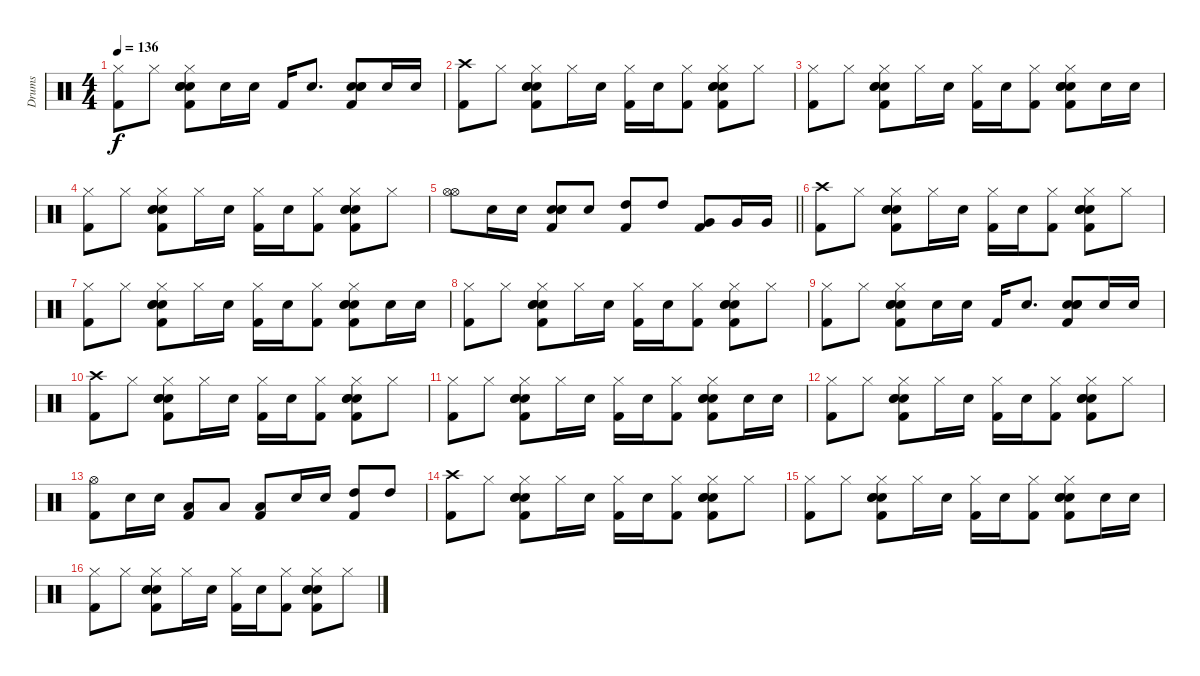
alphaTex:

\track ("Drums" "Drums") {instrument percussion}
\staff {score}
\articulation defaults
\ts (4 4)
\tempo 136
\clef neutral
\ks c
("Hi-Hat (closed)" "Kick (hit) 2").8{dy f} "Hi-Hat (closed)".8 ("Hi-Hat (closed)" "Electric Snare (hit)" "Electric Snare (hit)" "Electric Snare (hit)" "Kick (hit) 2").8 "Electric Snare (hit)".16 "Electric Snare (hit)".16 "Kick (hit) 2".16 "Electric Snare (hit)".8{d} ("Electric Snare (hit)" "Electric Snare (hit)" "Electric Snare (hit)" "Kick (hit) 2").8 "Electric Snare (hit)".16 "Electric Snare (hit)".16 |
("Crash high (hit)" "Kick (hit) 2").8 "Hi-Hat (closed)".8 ("Hi-Hat (closed)" "Electric Snare (hit)" "Electric Snare (hit)" "Electric Snare (hit)" "Kick (hit) 2").8 "Hi-Hat (closed)".16 "Electric Snare (hit)".16 ("Hi-Hat (closed)" "Kick (hit) 2").16 "Electric Snare (hit)".16 ("Hi-Hat (closed)" "Kick (hit) 2").8 ("Hi-Hat (closed)" "Electric Snare (hit)" "Electric Snare (hit)" "Electric Snare (hit)" "Kick (hit) 2").8 "Hi-Hat (closed)".8 |
("Hi-Hat (closed)" "Kick (hit) 2").8 "Hi-Hat (closed)".8 ("Hi-Hat (closed)" "Electric Snare (hit)" "Electric Snare (hit)" "Electric Snare (hit)" "Kick (hit) 2").8 "Hi-Hat (closed)".16 "Electric Snare (hit)".16 ("Hi-Hat (closed)" "Kick (hit) 2").16 "Electric Snare (hit)".16 ("Hi-Hat (closed)" "Kick (hit) 2").8 ("Hi-Hat (closed)" "Electric Snare (hit)" "Electric Snare (hit)" "Electric Snare (hit)" "Kick (hit) 2").8 "Electric Snare (hit)".16 "Electric Snare (hit)".16 |
("Hi-Hat (closed)" "Kick (hit) 2").8 "Hi-Hat (closed)".8 ("Hi-Hat (closed)" "Electric Snare (hit)" "Electric Snare (hit)" "Electric Snare (hit)" "Kick (hit) 2").8 "Hi-Hat (closed)".16 "Electric Snare (hit)".16 ("Hi-Hat (closed)" "Kick (hit) 2").16 "Electric Snare (hit)".16 ("Hi-Hat (closed)" "Kick (hit) 2").8 ("Hi-Hat (closed)" "Electric Snare (hit)" "Electric Snare (hit)" "Electric Snare (hit)" "Kick (hit) 2").8 "Hi-Hat (closed)".8 |
\barLineRight lightlight
("Hi-Hat (open)" "Hi-Hat (open)").8 "Electric Snare (hit)".16 "Electric Snare (hit)".16 ("Electric Snare (hit)" "Electric Snare (hit)" "Electric Snare (hit)" "Kick (hit) 2").8 "Electric Snare (hit)".8 ("High Tom (hit)" "Kick (hit) 2").8 "High Tom (hit)".8 ("Very Low Tom (hit)" "Kick (hit) 2").8 "Very Low Tom (hit)".16 "Very Low Tom (hit)".16 |
("Crash high (hit)" "Kick (hit) 2").8 "Hi-Hat (closed)".8 ("Hi-Hat (closed)" "Electric Snare (hit)" "Electric Snare (hit)" "Electric Snare (hit)" "Kick (hit) 2").8 "Hi-Hat (closed)".16 "Electric Snare (hit)".16 ("Hi-Hat (closed)" "Kick (hit) 2").16 "Electric Snare (hit)".16 ("Hi-Hat (closed)" "Kick (hit) 2").8 ("Hi-Hat (closed)" "Electric Snare (hit)" "Electric Snare (hit)" "Electric Snare (hit)" "Kick (hit) 2").8 "Hi-Hat (closed)".8 |
("Hi-Hat (closed)" "Kick (hit) 2").8 "Hi-Hat (closed)".8 ("Hi-Hat (closed)" "Electric Snare (hit)" "Electric Snare (hit)" "Electric Snare (hit)" "Kick (hit) 2").8 "Hi-Hat (closed)".16 "Electric Snare (hit)".16 ("Hi-Hat (closed)" "Kick (hit) 2").16 "Electric Snare (hit)".16 ("Hi-Hat (closed)" "Kick (hit) 2").8 ("Hi-Hat (closed)" "Electric Snare (hit)" "Electric Snare (hit)" "Electric Snare (hit)" "Kick (hit) 2").8 "Electric Snare (hit)".16 "Electric Snare (hit)".16 |
("Hi-Hat (closed)" "Kick (hit) 2").8 "Hi-Hat (closed)".8 ("Hi-Hat (closed)" "Electric Snare (hit)" "Electric Snare (hit)" "Electric Snare (hit)" "Kick (hit) 2").8 "Hi-Hat (closed)".16 "Electric Snare (hit)".16 ("Hi-Hat (closed)" "Kick (hit) 2").16 "Electric Snare (hit)".16 ("Hi-Hat (closed)" "Kick (hit) 2").8 ("Hi-Hat (closed)" "Electric Snare (hit)" "Electric Snare (hit)" "Electric Snare (hit)" "Kick (hit) 2").8 "Hi-Hat (closed)".8 |
("Hi-Hat (closed)" "Kick (hit) 2").8 "Hi-Hat (closed)".8 ("Hi-Hat (closed)" "Electric Snare (hit)" "Electric Snare (hit)" "Electric Snare (hit)" "Kick (hit) 2").8 "Electric Snare (hit)".16 "Electric Snare (hit)".16 "Kick (hit) 2".16 "Electric Snare (hit)".8{d} ("Electric Snare (hit)" "Electric Snare (hit)" "Electric Snare (hit)" "Kick (hit) 2").8 "Electric Snare (hit)".16 "Electric Snare (hit)".16 |
("Crash high (hit)" "Kick (hit) 2").8 "Hi-Hat (closed)".8 ("Hi-Hat (closed)" "Electric Snare (hit)" "Electric Snare (hit)" "Electric Snare (hit)" "Kick (hit) 2").8 "Hi-Hat (closed)".16 "Electric Snare (hit)".16 ("Hi-Hat (closed)" "Kick (hit) 2").16 "Electric Snare (hit)".16 ("Hi-Hat (closed)" "Kick (hit) 2").8 ("Hi-Hat (closed)" "Electric Snare (hit)" "Electric Snare (hit)" "Electric Snare (hit)" "Kick (hit) 2").8 "Hi-Hat (closed)".8 |
("Hi-Hat (closed)" "Kick (hit) 2").8 "Hi-Hat (closed)".8 ("Hi-Hat (closed)" "Electric Snare (hit)" "Electric Snare (hit)" "Electric Snare (hit)" "Kick (hit) 2").8 "Hi-Hat (closed)".16 "Electric Snare (hit)".16 ("Hi-Hat (closed)" "Kick (hit) 2").16 "Electric Snare (hit)".16 ("Hi-Hat (closed)" "Kick (hit) 2").8 ("Hi-Hat (closed)" "Electric Snare (hit)" "Electric Snare (hit)" "Electric Snare (hit)" "Kick (hit) 2").8 "Electric Snare (hit)".16 "Electric Snare (hit)".16 |
("Hi-Hat (closed)" "Kick (hit) 2").8 "Hi-Hat (closed)".8 ("Hi-Hat (closed)" "Electric Snare (hit)" "Electric Snare (hit)" "Electric Snare (hit)" "Kick (hit) 2").8 "Hi-Hat (closed)".16 "Electric Snare (hit)".16 ("Hi-Hat (closed)" "Kick (hit) 2").16 "Electric Snare (hit)".16 ("Hi-Hat (closed)" "Kick (hit) 2").8 ("Hi-Hat (closed)" "Electric Snare (hit)" "Electric Snare (hit)" "Electric Snare (hit)" "Kick (hit) 2").8 "Hi-Hat (closed)".8 |
("Hi-Hat (open)" "Kick (hit) 2").8 "Electric Snare (hit)".16 "Electric Snare (hit)".16 ("Low Tom (hit)" "Kick (hit) 2").8 "Low Tom (hit)".8 ("Low Tom (hit)" "Kick (hit) 2").8 "Electric Snare (hit)".16 "Electric Snare (hit)".16 ("High Tom (hit)" "Kick (hit) 2").8 "High Tom (hit)".8 |
("Crash high (hit)" "Kick (hit) 2").8 "Hi-Hat (closed)".8 ("Hi-Hat (closed)" "Electric Snare (hit)" "Electric Snare (hit)" "Electric Snare (hit)" "Kick (hit) 2").8 "Hi-Hat (closed)".16 "Electric Snare (hit)".16 ("Hi-Hat (closed)" "Kick (hit) 2").16 "Electric Snare (hit)".16 ("Hi-Hat (closed)" "Kick (hit) 2").8 ("Hi-Hat (closed)" "Electric Snare (hit)" "Electric Snare (hit)" "Electric Snare (hit)" "Kick (hit) 2").8 "Hi-Hat (closed)".8 |
("Hi-Hat (closed)" "Kick (hit) 2").8 "Hi-Hat (closed)".8 ("Hi-Hat (closed)" "Electric Snare (hit)" "Electric Snare (hit)" "Electric Snare (hit)" "Kick (hit) 2").8 "Hi-Hat (closed)".16 "Electric Snare (hit)".16 ("Hi-Hat (closed)" "Kick (hit) 2").16 "Electric Snare (hit)".16 ("Hi-Hat (closed)" "Kick (hit) 2").8 ("Hi-Hat (closed)" "Electric Snare (hit)" "Electric Snare (hit)" "Electric Snare (hit)" "Kick (hit) 2").8 "Electric Snare (hit)".16 "Electric Snare (hit)".16 |
("Hi-Hat (closed)" "Kick (hit) 2").8 "Hi-Hat (closed)".8 ("Hi-Hat (closed)" "Electric Snare (hit)" "Electric Snare (hit)" "Electric Snare (hit)" "Kick (hit) 2").8 "Hi-Hat (closed)".16 "Electric Snare (hit)".16 ("Hi-Hat (closed)" "Kick (hit) 2").16 "Electric Snare (hit)".16 ("Hi-Hat (closed)" "Kick (hit) 2").8 ("Hi-Hat (closed)" "Electric Snare (hit)" "Electric Snare (hit)" "Electric Snare (hit)" "Kick (hit) 2").8 "Hi-Hat (closed)".8
